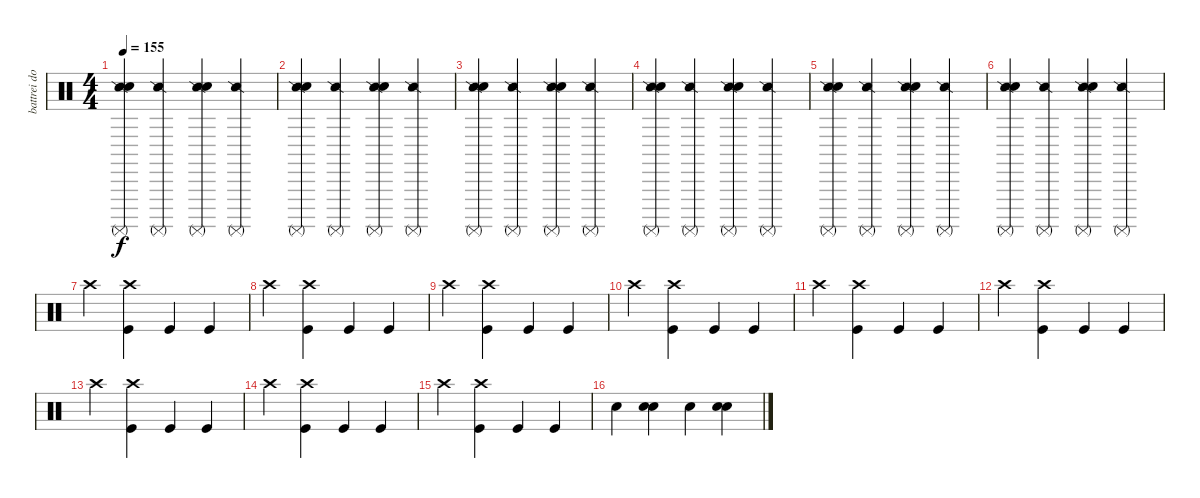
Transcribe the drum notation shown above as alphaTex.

\track ("battrei dom" "battrei do") {instrument percussion}
\staff {score}
\articulation defaults
\ts (4 4)
\tempo 155
\clef neutral
\ks c
("Snare (side stick) 2" "Snare (hit) 2" "Surdo (mute)").4{dy f} ("Snare (side stick) 2" "Surdo (mute)").4 ("Snare (side stick) 2" "Snare (hit) 2" "Surdo (mute)").4 ("Snare (side stick) 2" "Surdo (mute)").4 |
("Snare (side stick) 2" "Snare (hit) 2" "Surdo (mute)").4 ("Snare (side stick) 2" "Surdo (mute)").4 ("Snare (side stick) 2" "Snare (hit) 2" "Surdo (mute)").4 ("Snare (side stick) 2" "Surdo (mute)").4 |
("Snare (side stick) 2" "Snare (hit) 2" "Surdo (mute)").4 ("Snare (side stick) 2" "Surdo (mute)").4 ("Snare (side stick) 2" "Snare (hit) 2" "Surdo (mute)").4 ("Snare (side stick) 2" "Surdo (mute)").4 |
("Snare (side stick) 2" "Snare (hit) 2" "Surdo (mute)").4 ("Snare (side stick) 2" "Surdo (mute)").4 ("Snare (side stick) 2" "Snare (hit) 2" "Surdo (mute)").4 ("Snare (side stick) 2" "Surdo (mute)").4 |
("Snare (side stick) 2" "Snare (hit) 2" "Surdo (mute)").4 ("Snare (side stick) 2" "Surdo (mute)").4 ("Snare (side stick) 2" "Snare (hit) 2" "Surdo (mute)").4 ("Snare (side stick) 2" "Surdo (mute)").4 |
("Snare (side stick) 2" "Snare (hit) 2" "Surdo (mute)").4 ("Snare (side stick) 2" "Surdo (mute)").4 ("Snare (side stick) 2" "Snare (hit) 2" "Surdo (mute)").4 ("Snare (side stick) 2" "Surdo (mute)").4 |
"Crash high (hit)".4 ("Crash high (hit)" "Kick (hit)").4 "Kick (hit)".4 "Kick (hit)".4 |
"Crash high (hit)".4 ("Crash high (hit)" "Kick (hit)").4 "Kick (hit)".4 "Kick (hit)".4 |
"Crash high (hit)".4 ("Crash high (hit)" "Kick (hit)").4 "Kick (hit)".4 "Kick (hit)".4 |
"Crash high (hit)".4 ("Crash high (hit)" "Kick (hit)").4 "Kick (hit)".4 "Kick (hit)".4 |
"Crash high (hit)".4 ("Crash high (hit)" "Kick (hit)").4 "Kick (hit)".4 "Kick (hit)".4 |
"Crash high (hit)".4 ("Crash high (hit)" "Kick (hit)").4 "Kick (hit)".4 "Kick (hit)".4 |
"Crash high (hit)".4 ("Crash high (hit)" "Kick (hit)").4 "Kick (hit)".4 "Kick (hit)".4 |
"Crash high (hit)".4 ("Crash high (hit)" "Kick (hit)").4 "Kick (hit)".4 "Kick (hit)".4 |
"Crash high (hit)".4 ("Crash high (hit)" "Kick (hit)").4 "Kick (hit)".4 "Kick (hit)".4 |
"Snare (hit) 2".4 ("Snare (hit) 2" "Snare (hit) 2").4 "Snare (hit) 2".4 ("Snare (hit) 2" "Snare (hit) 2").4
